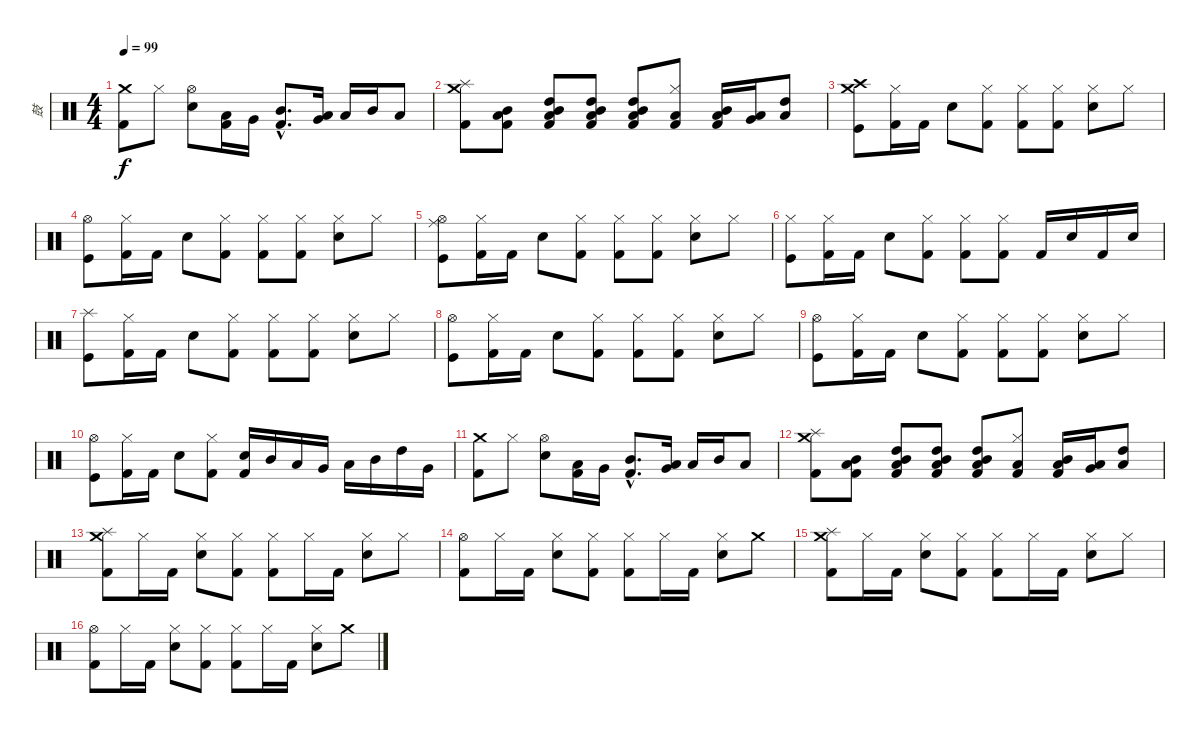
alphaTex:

\track ("鼓" "鼓") {instrument percussion}
\staff {score}
\articulation defaults
\ts (4 4)
\tempo 99
\clef neutral
\ks c
("Crash medium (hit)" "Kick (hit) 2").8{dy f} "Hi-Hat (closed)".8 ("Hi-Hat (open)" "Electric Snare (hit)").8 ("Low Tom (hit)" "Kick (hit) 2").16 "Very Low Tom (hit)".16 ("Mid Tom (hit)"{hac} "Kick (hit) 2"{hac}).8{d} ("Very Low Tom (hit)" "Low Tom (hit)").16 "Low Tom (hit)".16 "Mid Tom (hit)".16 "Low Floor Tom (hit)".8 |
("Splash (hit)" "Crash medium (hit)" "Kick (hit) 2").8 ("Mid Tom (hit)" "Low Tom (hit)" "Kick (hit) 2").8 ("Mid Tom (hit)" "High Tom (hit)" "Low Tom (hit)" "Kick (hit) 2").8 ("Mid Tom (hit)" "High Tom (hit)" "Low Tom (hit)" "Kick (hit) 2").8 ("Mid Tom (hit)" "High Tom (hit)" "Low Tom (hit)" "Kick (hit) 2").8 ("Hi-Hat (closed)" "Low Tom (hit)" "Kick (hit) 2").8 ("Mid Tom (hit)" "Low Tom (hit)" "Kick (hit) 2").16 ("Low Tom (hit)" "Very Low Tom (hit)").16 ("High Tom (hit)" "Low Floor Tom (hit)").8 |
("Crash medium (hit)" "Crash high (hit)" "Kick (hit)").8 ("Hi-Hat (closed)" "Kick (hit) 2").16 "Kick (hit) 2".16 "Electric Snare (hit)".8 ("Hi-Hat (closed)" "Kick (hit) 2").8 ("Hi-Hat (closed)" "Kick (hit) 2").8 ("Hi-Hat (closed)" "Kick (hit) 2").8 ("Hi-Hat (closed)" "Electric Snare (hit)").8 "Hi-Hat (closed)".8 |
("Hi-Hat (open)" "Kick (hit)").8 ("Hi-Hat (closed)" "Kick (hit) 2").16 "Kick (hit) 2".16 "Electric Snare (hit)".8 ("Hi-Hat (closed)" "Kick (hit) 2").8 ("Hi-Hat (closed)" "Kick (hit) 2").8 ("Hi-Hat (closed)" "Kick (hit) 2").8 ("Hi-Hat (closed)" "Electric Snare (hit)").8 "Hi-Hat (closed)".8 |
("Ride (middle)" "Hi-Hat (open)" "Kick (hit)").8 ("Hi-Hat (closed)" "Kick (hit) 2").16 "Kick (hit) 2".16 "Electric Snare (hit)".8 ("Hi-Hat (closed)" "Kick (hit) 2").8 ("Hi-Hat (closed)" "Kick (hit) 2").8 ("Hi-Hat (closed)" "Kick (hit) 2").8 ("Hi-Hat (closed)" "Electric Snare (hit)").8 "Hi-Hat (closed)".8 |
("Hi-Hat (closed)" "Kick (hit)").8 ("Hi-Hat (closed)" "Kick (hit) 2").16 "Kick (hit) 2".16 "Electric Snare (hit)".8 ("Hi-Hat (closed)" "Kick (hit) 2").8 ("Hi-Hat (closed)" "Kick (hit) 2").8 ("Hi-Hat (closed)" "Kick (hit) 2").8 "Kick (hit) 2".16 "Electric Snare (hit)".16 "Kick (hit) 2".16 "Electric Snare (hit)".16 |
("Splash (hit)" "Kick (hit)").8 ("Hi-Hat (closed)" "Kick (hit) 2").16 "Kick (hit) 2".16 "Electric Snare (hit)".8 ("Hi-Hat (closed)" "Kick (hit) 2").8 ("Hi-Hat (closed)" "Kick (hit) 2").8 ("Hi-Hat (closed)" "Kick (hit) 2").8 ("Hi-Hat (closed)" "Electric Snare (hit)").8 "Hi-Hat (closed)".8 |
("Hi-Hat (open)" "Kick (hit)").8 ("Hi-Hat (closed)" "Kick (hit) 2").16 "Kick (hit) 2".16 "Electric Snare (hit)".8 ("Hi-Hat (closed)" "Kick (hit) 2").8 ("Hi-Hat (closed)" "Kick (hit) 2").8 ("Hi-Hat (closed)" "Kick (hit) 2").8 ("Hi-Hat (closed)" "Electric Snare (hit)").8 "Hi-Hat (closed)".8 |
("Hi-Hat (open)" "Kick (hit)").8 ("Hi-Hat (closed)" "Kick (hit) 2").16 "Kick (hit) 2".16 "Electric Snare (hit)".8 ("Hi-Hat (closed)" "Kick (hit) 2").8 ("Hi-Hat (closed)" "Kick (hit) 2").8 ("Hi-Hat (closed)" "Kick (hit) 2").8 ("Hi-Hat (closed)" "Electric Snare (hit)").8 "Hi-Hat (closed)".8 |
("Hi-Hat (open)" "Kick (hit)").8 ("Hi-Hat (closed)" "Kick (hit) 2").16 "Kick (hit) 2".16 "Electric Snare (hit)".8 ("Hi-Hat (closed)" "Kick (hit) 2").8 ("Electric Snare (hit)" "Kick (hit) 2").16 "Mid Tom (hit)".16 "Low Tom (hit)".16 "Very Low Tom (hit)".16 "Low Tom (hit)".16 "Mid Tom (hit)".16 "High Tom (hit)".16 "Very Low Tom (hit)".16 |
("Crash medium (hit)" "Kick (hit) 2").8 "Hi-Hat (closed)".8 ("Hi-Hat (open)" "Electric Snare (hit)").8 ("Low Tom (hit)" "Kick (hit) 2").16 "Very Low Tom (hit)".16 ("Mid Tom (hit)"{hac} "Kick (hit) 2"{hac}).8{d} ("Very Low Tom (hit)" "Low Tom (hit)").16 "Low Tom (hit)".16 "Mid Tom (hit)".16 "Low Floor Tom (hit)".8 |
("Splash (hit)" "Crash medium (hit)" "Kick (hit) 2").8 ("Mid Tom (hit)" "Low Tom (hit)" "Kick (hit) 2").8 ("Mid Tom (hit)" "High Tom (hit)" "Low Tom (hit)" "Kick (hit) 2").8 ("Mid Tom (hit)" "High Tom (hit)" "Low Tom (hit)" "Kick (hit) 2").8 ("Mid Tom (hit)" "High Tom (hit)" "Low Tom (hit)" "Kick (hit) 2").8 ("Hi-Hat (closed)" "Low Tom (hit)" "Kick (hit) 2").8 ("Mid Tom (hit)" "Low Tom (hit)" "Kick (hit) 2").16 ("Low Tom (hit)" "Very Low Tom (hit)").16 ("High Tom (hit)" "Low Floor Tom (hit)").8 |
("Splash (hit)" "Crash medium (hit)" "Kick (hit) 2").8 "Hi-Hat (closed)".16 "Kick (hit) 2".16 ("Hi-Hat (closed)" "Electric Snare (hit)").8 ("Hi-Hat (closed)" "Kick (hit) 2").8 ("Hi-Hat (closed)" "Kick (hit) 2").8 "Hi-Hat (closed)".16 "Kick (hit) 2".16 ("Hi-Hat (closed)" "Electric Snare (hit)").8 "Hi-Hat (closed)".8 |
("Hi-Hat (open)" "Kick (hit) 2").8 "Hi-Hat (closed)".16 "Kick (hit) 2".16 ("Hi-Hat (closed)" "Electric Snare (hit)").8 ("Hi-Hat (closed)" "Kick (hit) 2").8 ("Hi-Hat (closed)" "Kick (hit) 2").8 "Hi-Hat (closed)".16 "Kick (hit) 2".16 ("Hi-Hat (closed)" "Electric Snare (hit)").8 "Crash medium (hit)".8 |
("Splash (hit)" "Crash medium (hit)" "Kick (hit) 2").8 "Hi-Hat (closed)".16 "Kick (hit) 2".16 ("Hi-Hat (closed)" "Electric Snare (hit)").8 ("Hi-Hat (closed)" "Kick (hit) 2").8 ("Hi-Hat (closed)" "Kick (hit) 2").8 "Hi-Hat (closed)".16 "Kick (hit) 2".16 ("Hi-Hat (closed)" "Electric Snare (hit)").8 "Hi-Hat (closed)".8 |
("Hi-Hat (open)" "Kick (hit) 2").8 "Hi-Hat (closed)".16 "Kick (hit) 2".16 ("Hi-Hat (closed)" "Electric Snare (hit)").8 ("Hi-Hat (closed)" "Kick (hit) 2").8 ("Hi-Hat (closed)" "Kick (hit) 2").8 "Hi-Hat (closed)".16 "Kick (hit) 2".16 ("Hi-Hat (closed)" "Electric Snare (hit)").8 "Crash medium (hit)".8
